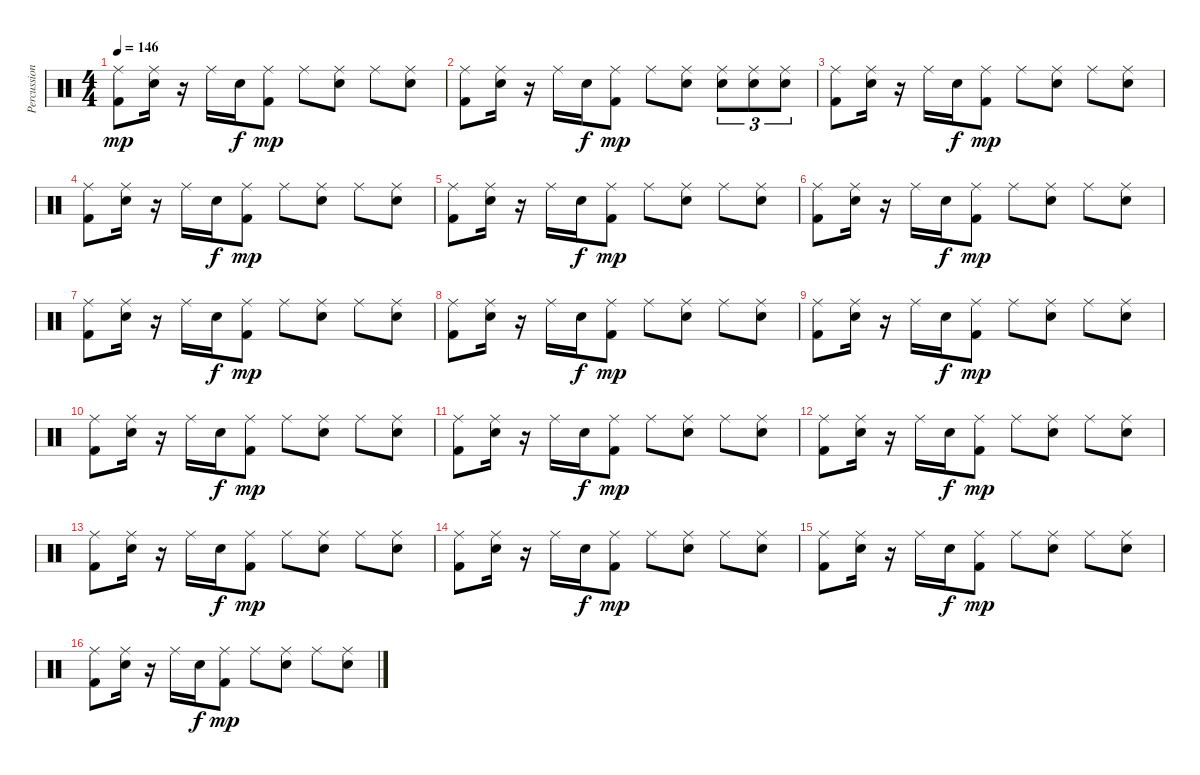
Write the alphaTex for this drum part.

\track ("Percussions" "Percussion") {instrument percussion}
\staff {score}
\articulation defaults
\ts (4 4)
\tempo 146
\clef neutral
\ks c
("Ride (middle)" "Kick (hit) 2").8{dy mp} ("Ride (middle)" "Electric Snare (hit)").16 r.16 "Ride (middle)".16 "Electric Snare (hit)".16{dy f} ("Ride (middle)" "Kick (hit) 2").8{dy mp} "Ride (middle)".8 ("Ride (middle)" "Electric Snare (hit)").8 "Ride (middle)".8 ("Ride (middle)" "Electric Snare (hit)").8 |
("Ride (middle)" "Kick (hit) 2").8 ("Ride (middle)" "Electric Snare (hit)").16 r.16 "Ride (middle)".16 "Electric Snare (hit)".16{dy f} ("Ride (middle)" "Kick (hit) 2").8{dy mp} "Ride (middle)".8 ("Ride (middle)" "Electric Snare (hit)").8 ("Ride (middle)" "Electric Snare (hit)").8{tu (3 2)} ("Ride (middle)" "Electric Snare (hit)").8{tu (3 2)} ("Ride (middle)" "Electric Snare (hit)").8{tu (3 2)} |
("Ride (middle)" "Kick (hit) 2").8 ("Ride (middle)" "Electric Snare (hit)").16 r.16 "Ride (middle)".16 "Electric Snare (hit)".16{dy f} ("Ride (middle)" "Kick (hit) 2").8{dy mp} "Ride (middle)".8 ("Ride (middle)" "Electric Snare (hit)").8 "Ride (middle)".8 ("Ride (middle)" "Electric Snare (hit)").8 |
("Ride (middle)" "Kick (hit) 2").8 ("Ride (middle)" "Electric Snare (hit)").16 r.16 "Ride (middle)".16 "Electric Snare (hit)".16{dy f} ("Ride (middle)" "Kick (hit) 2").8{dy mp} "Ride (middle)".8 ("Ride (middle)" "Electric Snare (hit)").8 "Ride (middle)".8 ("Ride (middle)" "Electric Snare (hit)").8 |
("Ride (middle)" "Kick (hit) 2").8 ("Ride (middle)" "Electric Snare (hit)").16 r.16 "Ride (middle)".16 "Electric Snare (hit)".16{dy f} ("Ride (middle)" "Kick (hit) 2").8{dy mp} "Ride (middle)".8 ("Ride (middle)" "Electric Snare (hit)").8 "Ride (middle)".8 ("Ride (middle)" "Electric Snare (hit)").8 |
("Ride (middle)" "Kick (hit) 2").8 ("Ride (middle)" "Electric Snare (hit)").16 r.16 "Ride (middle)".16 "Electric Snare (hit)".16{dy f} ("Ride (middle)" "Kick (hit) 2").8{dy mp} "Ride (middle)".8 ("Ride (middle)" "Electric Snare (hit)").8 "Ride (middle)".8 ("Ride (middle)" "Electric Snare (hit)").8 |
("Ride (middle)" "Kick (hit) 2").8 ("Ride (middle)" "Electric Snare (hit)").16 r.16 "Ride (middle)".16 "Electric Snare (hit)".16{dy f} ("Ride (middle)" "Kick (hit) 2").8{dy mp} "Ride (middle)".8 ("Ride (middle)" "Electric Snare (hit)").8 "Ride (middle)".8 ("Ride (middle)" "Electric Snare (hit)").8 |
("Ride (middle)" "Kick (hit) 2").8 ("Ride (middle)" "Electric Snare (hit)").16 r.16 "Ride (middle)".16 "Electric Snare (hit)".16{dy f} ("Ride (middle)" "Kick (hit) 2").8{dy mp} "Ride (middle)".8 ("Ride (middle)" "Electric Snare (hit)").8 "Ride (middle)".8 ("Ride (middle)" "Electric Snare (hit)").8 |
("Ride (middle)" "Kick (hit) 2").8 ("Ride (middle)" "Electric Snare (hit)").16 r.16 "Ride (middle)".16 "Electric Snare (hit)".16{dy f} ("Ride (middle)" "Kick (hit) 2").8{dy mp} "Ride (middle)".8 ("Ride (middle)" "Electric Snare (hit)").8 "Ride (middle)".8 ("Ride (middle)" "Electric Snare (hit)").8 |
("Ride (middle)" "Kick (hit) 2").8 ("Ride (middle)" "Electric Snare (hit)").16 r.16 "Ride (middle)".16 "Electric Snare (hit)".16{dy f} ("Ride (middle)" "Kick (hit) 2").8{dy mp} "Ride (middle)".8 ("Ride (middle)" "Electric Snare (hit)").8 "Ride (middle)".8 ("Ride (middle)" "Electric Snare (hit)").8 |
("Ride (middle)" "Kick (hit) 2").8 ("Ride (middle)" "Electric Snare (hit)").16 r.16 "Ride (middle)".16 "Electric Snare (hit)".16{dy f} ("Ride (middle)" "Kick (hit) 2").8{dy mp} "Ride (middle)".8 ("Ride (middle)" "Electric Snare (hit)").8 "Ride (middle)".8 ("Ride (middle)" "Electric Snare (hit)").8 |
("Ride (middle)" "Kick (hit) 2").8 ("Ride (middle)" "Electric Snare (hit)").16 r.16 "Ride (middle)".16 "Electric Snare (hit)".16{dy f} ("Ride (middle)" "Kick (hit) 2").8{dy mp} "Ride (middle)".8 ("Ride (middle)" "Electric Snare (hit)").8 "Ride (middle)".8 ("Ride (middle)" "Electric Snare (hit)").8 |
("Ride (middle)" "Kick (hit) 2").8 ("Ride (middle)" "Electric Snare (hit)").16 r.16 "Ride (middle)".16 "Electric Snare (hit)".16{dy f} ("Ride (middle)" "Kick (hit) 2").8{dy mp} "Ride (middle)".8 ("Ride (middle)" "Electric Snare (hit)").8 "Ride (middle)".8 ("Ride (middle)" "Electric Snare (hit)").8 |
("Ride (middle)" "Kick (hit) 2").8 ("Ride (middle)" "Electric Snare (hit)").16 r.16 "Ride (middle)".16 "Electric Snare (hit)".16{dy f} ("Ride (middle)" "Kick (hit) 2").8{dy mp} "Ride (middle)".8 ("Ride (middle)" "Electric Snare (hit)").8 "Ride (middle)".8 ("Ride (middle)" "Electric Snare (hit)").8 |
("Ride (middle)" "Kick (hit) 2").8 ("Ride (middle)" "Electric Snare (hit)").16 r.16 "Ride (middle)".16 "Electric Snare (hit)".16{dy f} ("Ride (middle)" "Kick (hit) 2").8{dy mp} "Ride (middle)".8 ("Ride (middle)" "Electric Snare (hit)").8 "Ride (middle)".8 ("Ride (middle)" "Electric Snare (hit)").8 |
("Ride (middle)" "Kick (hit) 2").8 ("Ride (middle)" "Electric Snare (hit)").16 r.16 "Ride (middle)".16 "Electric Snare (hit)".16{dy f} ("Ride (middle)" "Kick (hit) 2").8{dy mp} "Ride (middle)".8 ("Ride (middle)" "Electric Snare (hit)").8 "Ride (middle)".8 ("Ride (middle)" "Electric Snare (hit)").8
